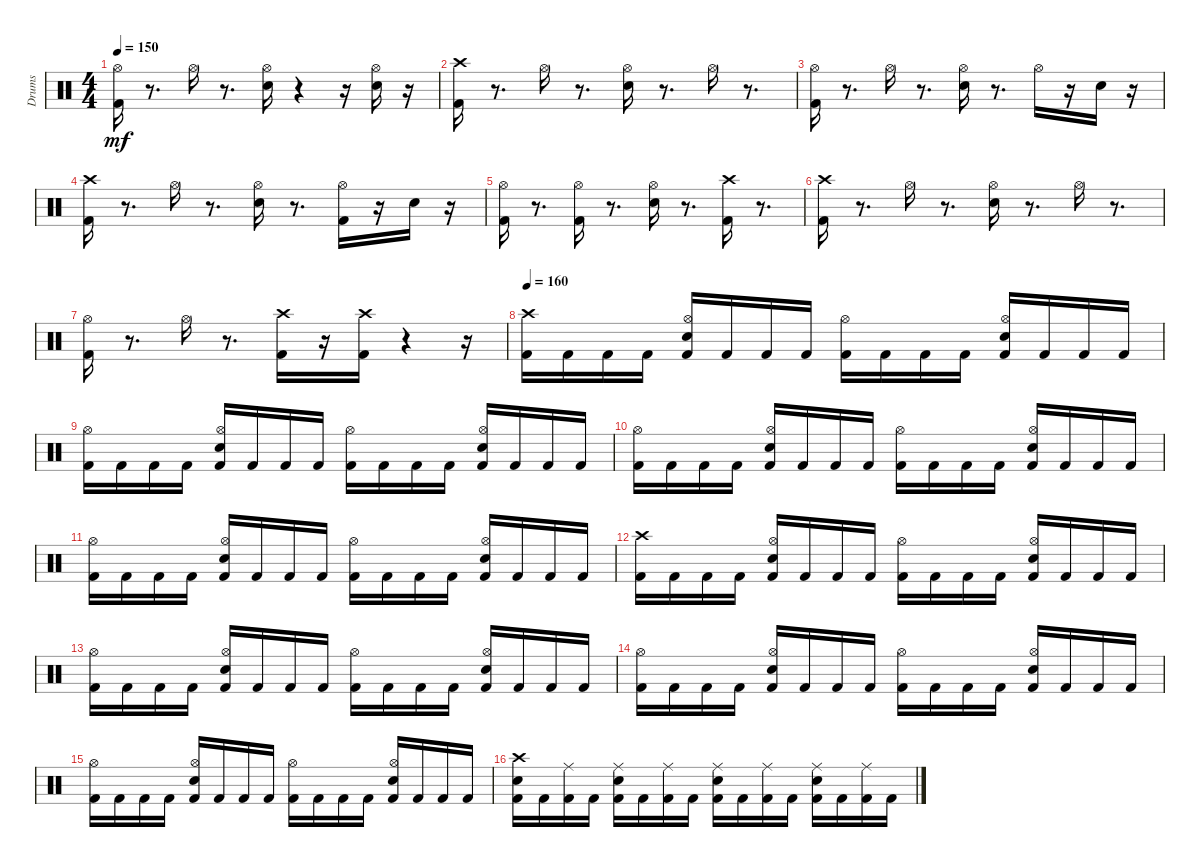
\track ("Drums               " "Drums     ") {instrument percussion}
\staff {score}
\articulation defaults
\ts (4 4)
\tempo 150
\clef neutral
\ks c
("Kick (hit) 2" "Hi-Hat (open)").16{dy mf} r.8{d} "Hi-Hat (open)".16 r.8{d} ("Hi-Hat (open)" "Snare (hit) 2").16 r.4 r.16 ("Snare (hit) 2" "Hi-Hat (open)").16 r.16 |
("Kick (hit) 2" "Crash high (hit)").16 r.8{d} "Hi-Hat (open)".16 r.8{d} ("Hi-Hat (open)" "Snare (hit) 2").16 r.8{d} "Hi-Hat (open)".16 r.8{d} |
("Kick (hit) 2" "Hi-Hat (open)").16 r.8{d} "Hi-Hat (open)".16 r.8{d} ("Hi-Hat (open)" "Snare (hit) 2").16 r.8{d} "Hi-Hat (open)".16 r.16 "Snare (hit) 2".16 r.16 |
("Crash high (hit)" "Kick (hit) 2").16 r.8{d} "Hi-Hat (open)".16 r.8{d} ("Hi-Hat (open)" "Snare (hit) 2").16 r.8{d} ("Hi-Hat (open)" "Kick (hit) 2").16 r.16 "Snare (hit) 2".16 r.16 |
("Kick (hit) 2" "Hi-Hat (open)").16 r.8{d} ("Hi-Hat (open)" "Kick (hit) 2").16 r.8{d} ("Hi-Hat (open)" "Snare (hit) 2").16 r.8{d} ("Kick (hit) 2" "Crash high (hit)").16 r.8{d} |
("Kick (hit) 2" "Crash high (hit)").16 r.8{d} "Hi-Hat (open)".16 r.8{d} ("Hi-Hat (open)" "Snare (hit) 2").16 r.8{d} "Hi-Hat (open)".16 r.8{d} |
("Kick (hit) 2" "Hi-Hat (open)").16 r.8{d} "Hi-Hat (open)".16 r.8{d} ("Crash high (hit)" "Kick (hit) 2").16 r.16 ("Crash high (hit)" "Kick (hit) 2").16 r.4 r.16 |
\tempo 160
("Crash high (hit)" "Kick (hit) 2").16 "Kick (hit) 2".16 "Kick (hit) 2".16 "Kick (hit) 2".16 ("Kick (hit) 2" "Snare (hit) 2" "Hi-Hat (open)").16 "Kick (hit) 2".16 "Kick (hit) 2".16 "Kick (hit) 2".16 ("Kick (hit) 2" "Hi-Hat (open)").16 "Kick (hit) 2".16 "Kick (hit) 2".16 "Kick (hit) 2".16 ("Kick (hit) 2" "Snare (hit) 2" "Hi-Hat (open)").16 "Kick (hit) 2".16 "Kick (hit) 2".16 "Kick (hit) 2".16 |
("Kick (hit) 2" "Hi-Hat (open)").16 "Kick (hit) 2".16 "Kick (hit) 2".16 "Kick (hit) 2".16 ("Kick (hit) 2" "Snare (hit) 2" "Hi-Hat (open)").16 "Kick (hit) 2".16 "Kick (hit) 2".16 "Kick (hit) 2".16 ("Kick (hit) 2" "Hi-Hat (open)").16 "Kick (hit) 2".16 "Kick (hit) 2".16 "Kick (hit) 2".16 ("Kick (hit) 2" "Snare (hit) 2" "Hi-Hat (open)").16 "Kick (hit) 2".16 "Kick (hit) 2".16 "Kick (hit) 2".16 |
("Kick (hit) 2" "Hi-Hat (open)").16 "Kick (hit) 2".16 "Kick (hit) 2".16 "Kick (hit) 2".16 ("Kick (hit) 2" "Snare (hit) 2" "Hi-Hat (open)").16 "Kick (hit) 2".16 "Kick (hit) 2".16 "Kick (hit) 2".16 ("Kick (hit) 2" "Hi-Hat (open)").16 "Kick (hit) 2".16 "Kick (hit) 2".16 "Kick (hit) 2".16 ("Kick (hit) 2" "Snare (hit) 2" "Hi-Hat (open)").16 "Kick (hit) 2".16 "Kick (hit) 2".16 "Kick (hit) 2".16 |
("Kick (hit) 2" "Hi-Hat (open)").16 "Kick (hit) 2".16 "Kick (hit) 2".16 "Kick (hit) 2".16 ("Kick (hit) 2" "Snare (hit) 2" "Hi-Hat (open)").16 "Kick (hit) 2".16 "Kick (hit) 2".16 "Kick (hit) 2".16 ("Kick (hit) 2" "Hi-Hat (open)").16 "Kick (hit) 2".16 "Kick (hit) 2".16 "Kick (hit) 2".16 ("Kick (hit) 2" "Snare (hit) 2" "Hi-Hat (open)").16 "Kick (hit) 2".16 "Kick (hit) 2".16 "Kick (hit) 2".16 |
("Kick (hit) 2" "Crash high (hit)").16 "Kick (hit) 2".16 "Kick (hit) 2".16 "Kick (hit) 2".16 ("Kick (hit) 2" "Snare (hit) 2" "Hi-Hat (open)").16 "Kick (hit) 2".16 "Kick (hit) 2".16 "Kick (hit) 2".16 ("Kick (hit) 2" "Hi-Hat (open)").16 "Kick (hit) 2".16 "Kick (hit) 2".16 "Kick (hit) 2".16 ("Kick (hit) 2" "Snare (hit) 2" "Hi-Hat (open)").16 "Kick (hit) 2".16 "Kick (hit) 2".16 "Kick (hit) 2".16 |
("Kick (hit) 2" "Hi-Hat (open)").16 "Kick (hit) 2".16 "Kick (hit) 2".16 "Kick (hit) 2".16 ("Kick (hit) 2" "Snare (hit) 2" "Hi-Hat (open)").16 "Kick (hit) 2".16 "Kick (hit) 2".16 "Kick (hit) 2".16 ("Kick (hit) 2" "Hi-Hat (open)").16 "Kick (hit) 2".16 "Kick (hit) 2".16 "Kick (hit) 2".16 ("Kick (hit) 2" "Snare (hit) 2" "Hi-Hat (open)").16 "Kick (hit) 2".16 "Kick (hit) 2".16 "Kick (hit) 2".16 |
("Kick (hit) 2" "Hi-Hat (open)").16 "Kick (hit) 2".16 "Kick (hit) 2".16 "Kick (hit) 2".16 ("Kick (hit) 2" "Snare (hit) 2" "Hi-Hat (open)").16 "Kick (hit) 2".16 "Kick (hit) 2".16 "Kick (hit) 2".16 ("Kick (hit) 2" "Hi-Hat (open)").16 "Kick (hit) 2".16 "Kick (hit) 2".16 "Kick (hit) 2".16 ("Kick (hit) 2" "Snare (hit) 2" "Hi-Hat (open)").16 "Kick (hit) 2".16 "Kick (hit) 2".16 "Kick (hit) 2".16 |
("Kick (hit) 2" "Hi-Hat (open)").16 "Kick (hit) 2".16 "Kick (hit) 2".16 "Kick (hit) 2".16 ("Kick (hit) 2" "Snare (hit) 2" "Hi-Hat (open)").16 "Kick (hit) 2".16 "Kick (hit) 2".16 "Kick (hit) 2".16 ("Kick (hit) 2" "Hi-Hat (open)").16 "Kick (hit) 2".16 "Kick (hit) 2".16 "Kick (hit) 2".16 ("Kick (hit) 2" "Snare (hit) 2" "Hi-Hat (open)").16 "Kick (hit) 2".16 "Kick (hit) 2".16 "Kick (hit) 2".16 |
("Crash high (hit)" "Kick (hit) 2" "Snare (hit) 2").16 "Kick (hit) 2".16 ("Kick (hit) 2" "Ride (middle)").16 "Kick (hit) 2".16 ("Kick (hit) 2" "Snare (hit) 2" "Ride (middle)").16 "Kick (hit) 2".16 ("Kick (hit) 2" "Ride (middle)").16 "Kick (hit) 2".16 ("Kick (hit) 2" "Snare (hit) 2" "Ride (middle)").16 "Kick (hit) 2".16 ("Kick (hit) 2" "Ride (middle)").16 "Kick (hit) 2".16 ("Kick (hit) 2" "Snare (hit) 2" "Ride (middle)").16 "Kick (hit) 2".16 ("Kick (hit) 2" "Ride (middle)").16 "Kick (hit) 2".16
